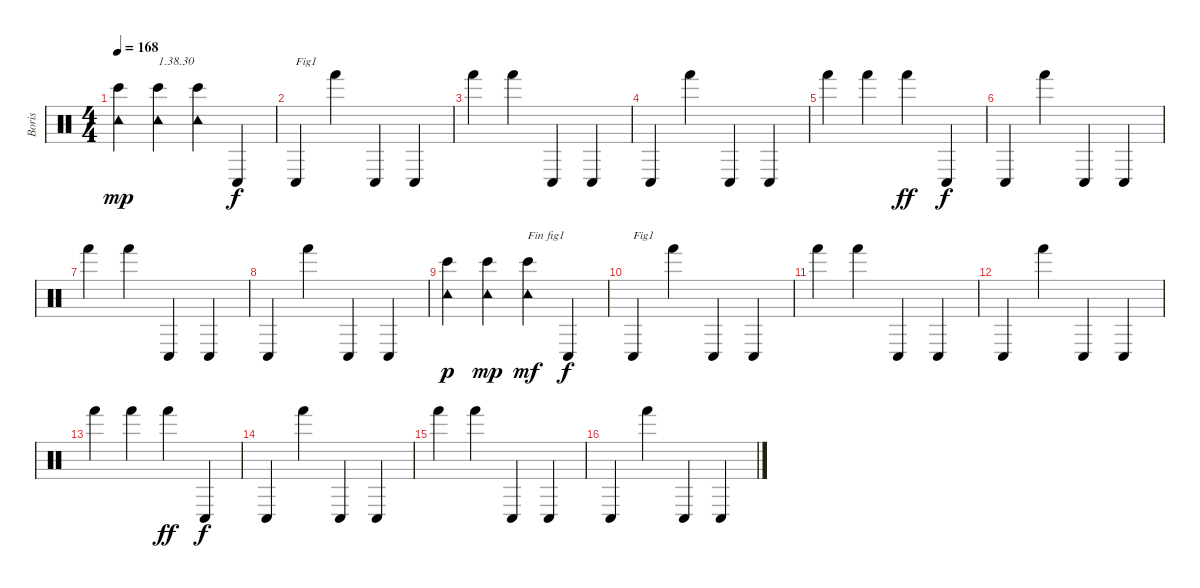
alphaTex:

\track ("Boris" "Boris") {instrument percussion}
\staff {score}
\articulation defaults
\ts (4 4)
\tempo 168
\clef neutral
\ks c
("Tambourine (hit)" "Bongo High (hit)").4{dy mp} ("Tambourine (hit)" "Bongo High (hit)").4{txt "1.38.30"} ("Tambourine (hit)" "Bongo High (hit)").4 "Conga low (hit)".4{dy f} |
"Conga low (hit)".4{txt "Fig1"} "Hand (hit)".4 "Conga low (hit)".4 "Conga low (hit)".4 |
"Hand (hit)".4 "Hand (hit)".4 "Conga low (hit)".4 "Conga low (hit)".4 |
"Conga low (hit)".4 "Hand (hit)".4 "Conga low (hit)".4 "Conga low (hit)".4 |
"Hand (hit)".4 "Hand (hit)".4 "Hand (hit)".4{dy ff} "Conga low (hit)".4{dy f} |
"Conga low (hit)".4 "Hand (hit)".4 "Conga low (hit)".4 "Conga low (hit)".4 |
"Hand (hit)".4 "Hand (hit)".4 "Conga low (hit)".4 "Conga low (hit)".4 |
"Conga low (hit)".4 "Hand (hit)".4 "Conga low (hit)".4 "Conga low (hit)".4 |
("Tambourine (hit)" "Bongo High (hit)").4{dy p} ("Tambourine (hit)" "Bongo High (hit)").4{dy mp} ("Tambourine (hit)" "Bongo High (hit)").4{txt "Fin fig1" dy mf} "Conga low (hit)".4{dy f} |
"Conga low (hit)".4{txt "Fig1"} "Hand (hit)".4 "Conga low (hit)".4 "Conga low (hit)".4 |
"Hand (hit)".4 "Hand (hit)".4 "Conga low (hit)".4 "Conga low (hit)".4 |
"Conga low (hit)".4 "Hand (hit)".4 "Conga low (hit)".4 "Conga low (hit)".4 |
"Hand (hit)".4 "Hand (hit)".4 "Hand (hit)".4{dy ff} "Conga low (hit)".4{dy f} |
"Conga low (hit)".4 "Hand (hit)".4 "Conga low (hit)".4 "Conga low (hit)".4 |
"Hand (hit)".4 "Hand (hit)".4 "Conga low (hit)".4 "Conga low (hit)".4 |
"Conga low (hit)".4 "Hand (hit)".4 "Conga low (hit)".4 "Conga low (hit)".4
